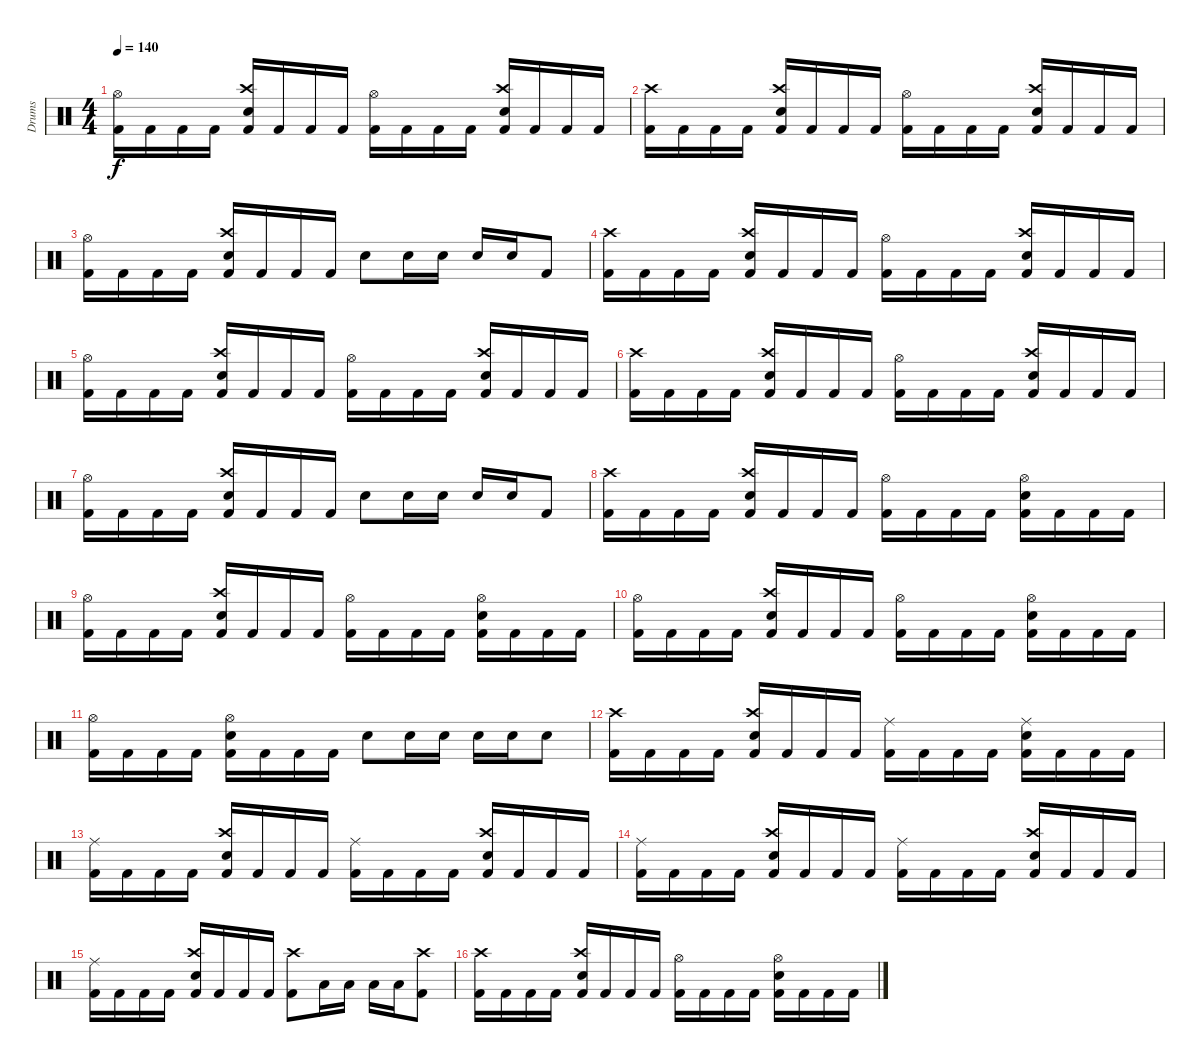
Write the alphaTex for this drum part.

\track ("Drums" "Drums") {instrument percussion}
\staff {score}
\articulation defaults
\ts (4 4)
\tempo 140
\clef neutral
\ks c
("Hi-Hat (open)" "Kick (hit) 2").16{dy f} "Kick (hit) 2".16 "Kick (hit) 2".16 "Kick (hit) 2".16 ("Crash high (hit)" "Electric Snare (hit)" "Kick (hit) 2").16 "Kick (hit) 2".16 "Kick (hit) 2".16 "Kick (hit) 2".16 ("Hi-Hat (open)" "Kick (hit) 2").16 "Kick (hit) 2".16 "Kick (hit) 2".16 "Kick (hit) 2".16 ("Crash high (hit)" "Electric Snare (hit)" "Kick (hit) 2").16 "Kick (hit) 2".16 "Kick (hit) 2".16 "Kick (hit) 2".16 |
("Crash high (hit)" "Kick (hit) 2").16 "Kick (hit) 2".16 "Kick (hit) 2".16 "Kick (hit) 2".16 ("Crash high (hit)" "Electric Snare (hit)" "Kick (hit) 2").16 "Kick (hit) 2".16 "Kick (hit) 2".16 "Kick (hit) 2".16 ("Hi-Hat (open)" "Kick (hit) 2").16 "Kick (hit) 2".16 "Kick (hit) 2".16 "Kick (hit) 2".16 ("Crash high (hit)" "Electric Snare (hit)" "Kick (hit) 2").16 "Kick (hit) 2".16 "Kick (hit) 2".16 "Kick (hit) 2".16 |
("Hi-Hat (open)" "Kick (hit) 2").16 "Kick (hit) 2".16 "Kick (hit) 2".16 "Kick (hit) 2".16 ("Crash high (hit)" "Electric Snare (hit)" "Kick (hit) 2").16 "Kick (hit) 2".16 "Kick (hit) 2".16 "Kick (hit) 2".16 "Electric Snare (hit)".8 "Electric Snare (hit)".16 "Electric Snare (hit)".16 "Electric Snare (hit)".16 "Electric Snare (hit)".16 "Kick (hit) 2".8 |
("Crash high (hit)" "Kick (hit) 2").16 "Kick (hit) 2".16 "Kick (hit) 2".16 "Kick (hit) 2".16 ("Crash high (hit)" "Electric Snare (hit)" "Kick (hit) 2").16 "Kick (hit) 2".16 "Kick (hit) 2".16 "Kick (hit) 2".16 ("Hi-Hat (open)" "Kick (hit) 2").16 "Kick (hit) 2".16 "Kick (hit) 2".16 "Kick (hit) 2".16 ("Crash high (hit)" "Electric Snare (hit)" "Kick (hit) 2").16 "Kick (hit) 2".16 "Kick (hit) 2".16 "Kick (hit) 2".16 |
("Hi-Hat (open)" "Kick (hit) 2").16 "Kick (hit) 2".16 "Kick (hit) 2".16 "Kick (hit) 2".16 ("Crash high (hit)" "Electric Snare (hit)" "Kick (hit) 2").16 "Kick (hit) 2".16 "Kick (hit) 2".16 "Kick (hit) 2".16 ("Hi-Hat (open)" "Kick (hit) 2").16 "Kick (hit) 2".16 "Kick (hit) 2".16 "Kick (hit) 2".16 ("Crash high (hit)" "Electric Snare (hit)" "Kick (hit) 2").16 "Kick (hit) 2".16 "Kick (hit) 2".16 "Kick (hit) 2".16 |
("Crash high (hit)" "Kick (hit) 2").16 "Kick (hit) 2".16 "Kick (hit) 2".16 "Kick (hit) 2".16 ("Crash high (hit)" "Electric Snare (hit)" "Kick (hit) 2").16 "Kick (hit) 2".16 "Kick (hit) 2".16 "Kick (hit) 2".16 ("Hi-Hat (open)" "Kick (hit) 2").16 "Kick (hit) 2".16 "Kick (hit) 2".16 "Kick (hit) 2".16 ("Crash high (hit)" "Electric Snare (hit)" "Kick (hit) 2").16 "Kick (hit) 2".16 "Kick (hit) 2".16 "Kick (hit) 2".16 |
("Hi-Hat (open)" "Kick (hit) 2").16 "Kick (hit) 2".16 "Kick (hit) 2".16 "Kick (hit) 2".16 ("Crash high (hit)" "Electric Snare (hit)" "Kick (hit) 2").16 "Kick (hit) 2".16 "Kick (hit) 2".16 "Kick (hit) 2".16 "Electric Snare (hit)".8 "Electric Snare (hit)".16 "Electric Snare (hit)".16 "Electric Snare (hit)".16 "Electric Snare (hit)".16 "Kick (hit) 2".8 |
("Crash high (hit)" "Kick (hit) 2").16 "Kick (hit) 2".16 "Kick (hit) 2".16 "Kick (hit) 2".16 ("Crash high (hit)" "Electric Snare (hit)" "Kick (hit) 2").16 "Kick (hit) 2".16 "Kick (hit) 2".16 "Kick (hit) 2".16 ("Hi-Hat (open)" "Kick (hit) 2").16 "Kick (hit) 2".16 "Kick (hit) 2".16 "Kick (hit) 2".16 ("Hi-Hat (open)" "Electric Snare (hit)" "Kick (hit) 2").16 "Kick (hit) 2".16 "Kick (hit) 2".16 "Kick (hit) 2".16 |
("Hi-Hat (open)" "Kick (hit) 2").16 "Kick (hit) 2".16 "Kick (hit) 2".16 "Kick (hit) 2".16 ("Crash high (hit)" "Electric Snare (hit)" "Kick (hit) 2").16 "Kick (hit) 2".16 "Kick (hit) 2".16 "Kick (hit) 2".16 ("Hi-Hat (open)" "Kick (hit) 2").16 "Kick (hit) 2".16 "Kick (hit) 2".16 "Kick (hit) 2".16 ("Hi-Hat (open)" "Electric Snare (hit)" "Kick (hit) 2").16 "Kick (hit) 2".16 "Kick (hit) 2".16 "Kick (hit) 2".16 |
("Hi-Hat (open)" "Kick (hit) 2").16 "Kick (hit) 2".16 "Kick (hit) 2".16 "Kick (hit) 2".16 ("Crash high (hit)" "Electric Snare (hit)" "Kick (hit) 2").16 "Kick (hit) 2".16 "Kick (hit) 2".16 "Kick (hit) 2".16 ("Hi-Hat (open)" "Kick (hit) 2").16 "Kick (hit) 2".16 "Kick (hit) 2".16 "Kick (hit) 2".16 ("Hi-Hat (open)" "Electric Snare (hit)" "Kick (hit) 2").16 "Kick (hit) 2".16 "Kick (hit) 2".16 "Kick (hit) 2".16 |
("Hi-Hat (open)" "Kick (hit) 2").16 "Kick (hit) 2".16 "Kick (hit) 2".16 "Kick (hit) 2".16 ("Hi-Hat (open)" "Electric Snare (hit)" "Kick (hit) 2").16 "Kick (hit) 2".16 "Kick (hit) 2".16 "Kick (hit) 2".16 "Electric Snare (hit)".8 "Electric Snare (hit)".16 "Electric Snare (hit)".16 "Electric Snare (hit)".16 "Electric Snare (hit)".16 "Electric Snare (hit)".8 |
("Crash high (hit)" "Kick (hit) 2").16 "Kick (hit) 2".16 "Kick (hit) 2".16 "Kick (hit) 2".16 ("Crash high (hit)" "Electric Snare (hit)" "Kick (hit) 2").16 "Kick (hit) 2".16 "Kick (hit) 2".16 "Kick (hit) 2".16 ("Ride (middle)" "Kick (hit) 2").16 "Kick (hit) 2".16 "Kick (hit) 2".16 "Kick (hit) 2".16 ("Ride (middle)" "Electric Snare (hit)" "Kick (hit) 2").16 "Kick (hit) 2".16 "Kick (hit) 2".16 "Kick (hit) 2".16 |
("Ride (middle)" "Kick (hit) 2").16 "Kick (hit) 2".16 "Kick (hit) 2".16 "Kick (hit) 2".16 ("Crash high (hit)" "Electric Snare (hit)" "Kick (hit) 2").16 "Kick (hit) 2".16 "Kick (hit) 2".16 "Kick (hit) 2".16 ("Ride (middle)" "Kick (hit) 2").16 "Kick (hit) 2".16 "Kick (hit) 2".16 "Kick (hit) 2".16 ("Crash high (hit)" "Electric Snare (hit)" "Kick (hit) 2").16 "Kick (hit) 2".16 "Kick (hit) 2".16 "Kick (hit) 2".16 |
("Ride (middle)" "Kick (hit) 2").16 "Kick (hit) 2".16 "Kick (hit) 2".16 "Kick (hit) 2".16 ("Crash high (hit)" "Electric Snare (hit)" "Kick (hit) 2").16 "Kick (hit) 2".16 "Kick (hit) 2".16 "Kick (hit) 2".16 ("Ride (middle)" "Kick (hit) 2").16 "Kick (hit) 2".16 "Kick (hit) 2".16 "Kick (hit) 2".16 ("Crash high (hit)" "Electric Snare (hit)" "Kick (hit) 2").16 "Kick (hit) 2".16 "Kick (hit) 2".16 "Kick (hit) 2".16 |
("Ride (middle)" "Kick (hit) 2").16 "Kick (hit) 2".16 "Kick (hit) 2".16 "Kick (hit) 2".16 ("Crash high (hit)" "Electric Snare (hit)" "Kick (hit) 2").16 "Kick (hit) 2".16 "Kick (hit) 2".16 "Kick (hit) 2".16 ("Crash high (hit)" "Kick (hit) 2").8 "Low Tom (hit)".16 "Low Tom (hit)".16 "Low Tom (hit)".16 "Low Tom (hit)".16 ("Crash high (hit)" "Kick (hit) 2").8 |
("Crash high (hit)" "Kick (hit) 2").16 "Kick (hit) 2".16 "Kick (hit) 2".16 "Kick (hit) 2".16 ("Crash high (hit)" "Electric Snare (hit)" "Kick (hit) 2").16 "Kick (hit) 2".16 "Kick (hit) 2".16 "Kick (hit) 2".16 ("Hi-Hat (open)" "Kick (hit) 2").16 "Kick (hit) 2".16 "Kick (hit) 2".16 "Kick (hit) 2".16 ("Hi-Hat (open)" "Electric Snare (hit)" "Kick (hit) 2").16 "Kick (hit) 2".16 "Kick (hit) 2".16 "Kick (hit) 2".16
